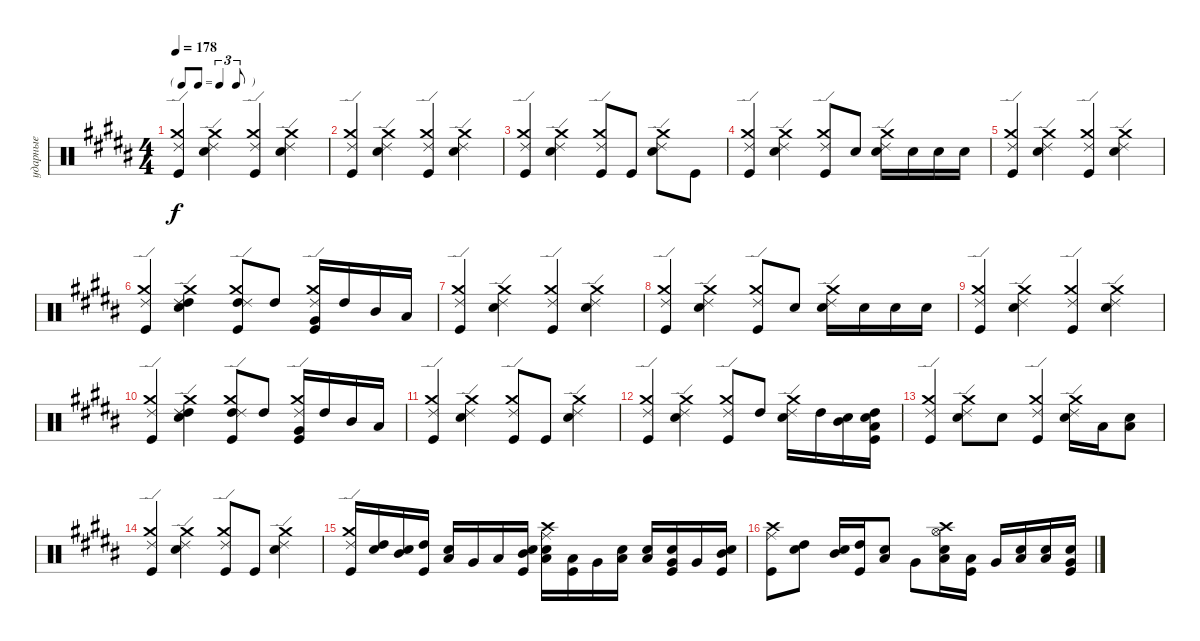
\track ("ударные" "ударные") {instrument percussion}
\staff {score}
\articulation defaults
\ts (4 4)
\tf triplet8th
\tempo 178
\clef neutral
\ks b
("Kick (hit)" "Crash medium (hit)" "Ride (edge) 2").4{dy f} ("Snare (hit) 2" "Crash medium (hit)" "Ride (edge) 2").4 ("Kick (hit)" "Crash medium (hit)" "Ride (edge) 2").4 ("Snare (hit) 2" "Crash medium (hit)" "Ride (edge) 2").4 |
("Kick (hit)" "Crash medium (hit)" "Ride (edge) 2").4 ("Snare (hit) 2" "Crash medium (hit)" "Ride (edge) 2").4 ("Kick (hit)" "Crash medium (hit)" "Ride (edge) 2").4 ("Snare (hit) 2" "Crash medium (hit)" "Ride (edge) 2").4 |
("Kick (hit)" "Crash medium (hit)" "Ride (edge) 2").4 ("Snare (hit) 2" "Crash medium (hit)" "Ride (edge) 2").4 ("Kick (hit)" "Crash medium (hit)" "Ride (edge) 2").8 "Kick (hit)".8 ("Snare (hit) 2" "Crash medium (hit)" "Ride (edge) 2").8 "Kick (hit)".8 |
("Kick (hit)" "Crash medium (hit)" "Ride (edge) 2").4 ("Snare (hit) 2" "Crash medium (hit)" "Ride (edge) 2").4 ("Kick (hit)" "Crash medium (hit)" "Ride (edge) 2").8 "Snare (hit) 2".8 ("Snare (hit) 2" "Crash medium (hit)" "Ride (edge) 2").16 "Snare (hit) 2".16 "Snare (hit) 2".16 "Snare (hit) 2".16 |
("Kick (hit)" "Crash medium (hit)" "Ride (edge) 2").4 ("Snare (hit) 2" "Crash medium (hit)" "Ride (edge) 2").4 ("Kick (hit)" "Crash medium (hit)" "Ride (edge) 2").4 ("Snare (hit) 2" "Crash medium (hit)" "Ride (edge) 2").4 |
("Kick (hit)" "Crash medium (hit)" "Ride (edge) 2").4 ("High Tom (hit)" "Snare (hit) 2" "Crash medium (hit)" "Ride (edge) 2").4 ("High Tom (hit)" "Kick (hit)" "Crash medium (hit)" "Ride (edge) 2").8 "High Tom (hit)".8 ("Very Low Tom (hit)" "Kick (hit)" "Crash medium (hit)" "Ride (edge) 2").16 "High Tom (hit)".16 "Mid Tom (hit)".16 "Low Tom (hit)".16 |
("Kick (hit)" "Crash medium (hit)" "Ride (edge) 2").4 ("Snare (hit) 2" "Crash medium (hit)" "Ride (edge) 2").4 ("Kick (hit)" "Crash medium (hit)" "Ride (edge) 2").4 ("Snare (hit) 2" "Crash medium (hit)" "Ride (edge) 2").4 |
("Kick (hit)" "Crash medium (hit)" "Ride (edge) 2").4 ("Snare (hit) 2" "Crash medium (hit)" "Ride (edge) 2").4 ("Kick (hit)" "Crash medium (hit)" "Ride (edge) 2").8 "Snare (hit) 2".8 ("Snare (hit) 2" "Crash medium (hit)" "Ride (edge) 2").16 "Snare (hit) 2".16 "Snare (hit) 2".16 "Snare (hit) 2".16 |
("Kick (hit)" "Crash medium (hit)" "Ride (edge) 2").4 ("Snare (hit) 2" "Crash medium (hit)" "Ride (edge) 2").4 ("Kick (hit)" "Crash medium (hit)" "Ride (edge) 2").4 ("Snare (hit) 2" "Crash medium (hit)" "Ride (edge) 2").4 |
("Kick (hit)" "Crash medium (hit)" "Ride (edge) 2").4 ("High Tom (hit)" "Snare (hit) 2" "Crash medium (hit)" "Ride (edge) 2").4 ("High Tom (hit)" "Kick (hit)" "Crash medium (hit)" "Ride (edge) 2").8 "High Tom (hit)".8 ("Very Low Tom (hit)" "Kick (hit)" "Crash medium (hit)" "Ride (edge) 2").16 "High Tom (hit)".16 "Mid Tom (hit)".16 "Low Tom (hit)".16 |
("Kick (hit)" "Crash medium (hit)" "Ride (edge) 2").4 ("Snare (hit) 2" "Crash medium (hit)" "Ride (edge) 2").4 ("Kick (hit)" "Crash medium (hit)" "Ride (edge) 2").8 "Kick (hit)".8 ("Snare (hit) 2" "Crash medium (hit)" "Ride (edge) 2").4 |
("Kick (hit)" "Crash medium (hit)" "Ride (edge) 2").4 ("Snare (hit) 2" "Crash medium (hit)" "Ride (edge) 2").4 ("Kick (hit)" "Crash medium (hit)" "Ride (edge) 2").8 "High Tom (hit)".8 ("Snare (hit) 2" "Crash medium (hit)" "Ride (edge) 2").16 "High Tom (hit)".16 ("Mid Tom (hit)" "Snare (hit) 2").16 ("High Tom (hit)" "Snare (hit) 2" "Low Tom (hit)" "Kick (hit)").16 |
("Kick (hit)" "Crash medium (hit)" "Ride (edge) 2").4 ("Snare (hit) 2" "Crash medium (hit)" "Ride (edge) 2").8 "Snare (hit) 2".8 ("Kick (hit)" "Crash medium (hit)" "Ride (edge) 2").4 ("Crash medium (hit)" "Ride (edge) 2" "Snare (hit) 2").16 "Low Tom (hit)".16 ("Low Tom (hit)" "Snare (hit) 2").8 |
("Kick (hit)" "Crash medium (hit)" "Ride (edge) 2").4 ("Snare (hit) 2" "Crash medium (hit)" "Ride (edge) 2").4 ("Kick (hit)" "Crash medium (hit)" "Ride (edge) 2").8 "Kick (hit)".8 ("Snare (hit) 2" "Crash medium (hit)" "Ride (edge) 2").4 |
("Crash medium (hit)" "Ride (edge) 2" "Kick (hit)").16 ("High Tom (hit)" "Snare (hit) 2").16 ("Mid Tom (hit)" "Snare (hit) 2").16 ("High Tom (hit)" "Kick (hit)").16 ("Low Tom (hit)" "Snare (hit) 2").16 "Very Low Tom (hit)".16 "Low Tom (hit)".16 ("Mid Tom (hit)" "Snare (hit) 2" "Kick (hit)").16 ("Crash high (hit)" "Ride (middle)" "Low Tom (hit)" "Snare (hit) 2").16 ("Low Tom (hit)" "Kick (hit)").16 "Very Low Tom (hit)".16 ("Low Tom (hit)" "Snare (hit) 2").16 ("Low Tom (hit)" "Snare (hit) 2").16 ("Very Low Tom (hit)" "Snare (hit) 2" "Kick (hit)").16 "Very Low Tom (hit)".16 ("Mid Tom (hit)" "Snare (hit) 2" "Kick (hit)").16 |
("Crash high (hit)" "Ride (middle)" "Kick (hit)").8 ("High Tom (hit)" "Snare (hit) 2").8 ("Mid Tom (hit)" "Snare (hit) 2").16 ("High Tom (hit)" "Kick (hit)").16 ("Low Tom (hit)" "Snare (hit) 2").8 "Very Low Tom (hit)".8 ("Low Tom (hit)" "Snare (hit) 2" "Hi-Hat (open)" "Crash high (hit)").16 ("Low Tom (hit)" "Kick (hit)").16 "Very Low Tom (hit)".16 ("Low Tom (hit)" "Snare (hit) 2").16 ("Low Tom (hit)" "Snare (hit) 2").16 ("Very Low Tom (hit)" "Snare (hit) 2" "Kick (hit)").16
